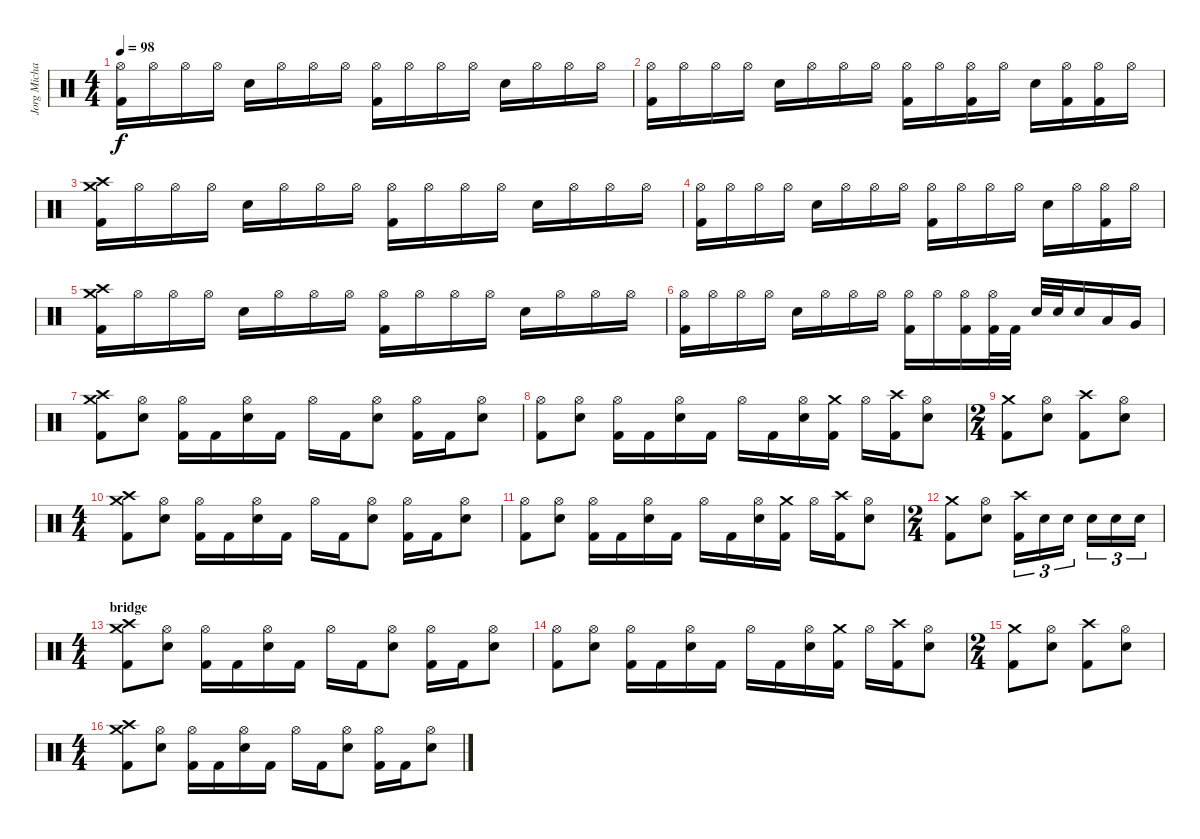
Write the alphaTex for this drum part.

\track ("Jorg Michael" "Jorg Micha") {instrument percussion}
\staff {score}
\articulation defaults
\ts (4 4)
\tempo 98
\clef neutral
\ks c
("Hi-Hat (open)" "Kick (hit) 2").16{dy f} "Hi-Hat (open)".16 "Hi-Hat (open)".16 "Hi-Hat (open)".16 "Electric Snare (hit)".16 "Hi-Hat (open)".16 "Hi-Hat (open)".16 "Hi-Hat (open)".16 ("Hi-Hat (open)" "Kick (hit) 2").16 "Hi-Hat (open)".16 "Hi-Hat (open)".16 "Hi-Hat (open)".16 "Electric Snare (hit)".16 "Hi-Hat (open)".16 "Hi-Hat (open)".16 "Hi-Hat (open)".16 |
("Hi-Hat (open)" "Kick (hit) 2").16 "Hi-Hat (open)".16 "Hi-Hat (open)".16 "Hi-Hat (open)".16 "Electric Snare (hit)".16 "Hi-Hat (open)".16 "Hi-Hat (open)".16 "Hi-Hat (open)".16 ("Hi-Hat (open)" "Kick (hit) 2").16 "Hi-Hat (open)".16 ("Hi-Hat (open)" "Kick (hit) 2").16 "Hi-Hat (open)".16 "Electric Snare (hit)".16 ("Hi-Hat (open)" "Kick (hit) 2").16 ("Hi-Hat (open)" "Kick (hit) 2").16 "Hi-Hat (open)".16 |
("Crash medium (hit)" "Crash high (hit)" "Kick (hit) 2").16 "Hi-Hat (open)".16 "Hi-Hat (open)".16 "Hi-Hat (open)".16 "Electric Snare (hit)".16 "Hi-Hat (open)".16 "Hi-Hat (open)".16 "Hi-Hat (open)".16 ("Hi-Hat (open)" "Kick (hit) 2").16 "Hi-Hat (open)".16 "Hi-Hat (open)".16 "Hi-Hat (open)".16 "Electric Snare (hit)".16 "Hi-Hat (open)".16 "Hi-Hat (open)".16 "Hi-Hat (open)".16 |
("Hi-Hat (open)" "Kick (hit) 2").16 "Hi-Hat (open)".16 "Hi-Hat (open)".16 "Hi-Hat (open)".16 "Electric Snare (hit)".16 "Hi-Hat (open)".16 "Hi-Hat (open)".16 "Hi-Hat (open)".16 ("Hi-Hat (open)" "Kick (hit) 2").16 "Hi-Hat (open)".16 "Hi-Hat (open)".16 "Hi-Hat (open)".16 "Electric Snare (hit)".16 "Hi-Hat (open)".16 ("Hi-Hat (open)" "Kick (hit) 2").16 "Hi-Hat (open)".16 |
("Crash medium (hit)" "Crash high (hit)" "Kick (hit) 2").16 "Hi-Hat (open)".16 "Hi-Hat (open)".16 "Hi-Hat (open)".16 "Electric Snare (hit)".16 "Hi-Hat (open)".16 "Hi-Hat (open)".16 "Hi-Hat (open)".16 ("Hi-Hat (open)" "Kick (hit) 2").16 "Hi-Hat (open)".16 "Hi-Hat (open)".16 "Hi-Hat (open)".16 "Electric Snare (hit)".16 "Hi-Hat (open)".16 "Hi-Hat (open)".16 "Hi-Hat (open)".16 |
("Hi-Hat (open)" "Kick (hit) 2").16 "Hi-Hat (open)".16 "Hi-Hat (open)".16 "Hi-Hat (open)".16 "Electric Snare (hit)".16 "Hi-Hat (open)".16 "Hi-Hat (open)".16 "Hi-Hat (open)".16 ("Hi-Hat (open)" "Kick (hit) 2").16 "Hi-Hat (open)".16 ("Hi-Hat (open)" "Kick (hit) 2").16 ("Hi-Hat (open)" "Kick (hit) 2").32 "Kick (hit) 2".32 "Electric Snare (hit)".32 "Electric Snare (hit)".32 "Electric Snare (hit)".16 "Low Tom (hit)".16 "Very Low Tom (hit)".16 |
("Crash medium (hit)" "Crash high (hit)" "Kick (hit) 2").8 ("Hi-Hat (open)" "Electric Snare (hit)").8 ("Hi-Hat (open)" "Kick (hit) 2").16 "Kick (hit) 2".16 ("Hi-Hat (open)" "Electric Snare (hit)").16 "Kick (hit) 2".16 "Hi-Hat (open)".16 "Kick (hit) 2".16 ("Hi-Hat (open)" "Electric Snare (hit)").8 ("Hi-Hat (open)" "Kick (hit) 2").16 "Kick (hit) 2".16 ("Hi-Hat (open)" "Electric Snare (hit)").8 |
("Hi-Hat (open)" "Kick (hit) 2").8 ("Hi-Hat (open)" "Electric Snare (hit)").8 ("Hi-Hat (open)" "Kick (hit) 2").16 "Kick (hit) 2".16 ("Hi-Hat (open)" "Electric Snare (hit)").16 "Kick (hit) 2".16 "Hi-Hat (open)".16 "Kick (hit) 2".16 ("Hi-Hat (open)" "Electric Snare (hit)").16 ("Crash medium (hit)" "Kick (hit) 2").16 "Hi-Hat (open)".16 ("Crash high (hit)" "Kick (hit) 2").16 ("Hi-Hat (open)" "Electric Snare (hit)").8 |
\ts (2 4)
("Crash medium (hit)" "Kick (hit) 2").8 ("Hi-Hat (open)" "Electric Snare (hit)").8 ("Crash high (hit)" "Kick (hit) 2").8 ("Hi-Hat (open)" "Electric Snare (hit)").8 |
\ts (4 4)
("Crash medium (hit)" "Crash high (hit)" "Kick (hit) 2").8 ("Hi-Hat (open)" "Electric Snare (hit)").8 ("Hi-Hat (open)" "Kick (hit) 2").16 "Kick (hit) 2".16 ("Hi-Hat (open)" "Electric Snare (hit)").16 "Kick (hit) 2".16 "Hi-Hat (open)".16 "Kick (hit) 2".16 ("Hi-Hat (open)" "Electric Snare (hit)").8 ("Hi-Hat (open)" "Kick (hit) 2").16 "Kick (hit) 2".16 ("Hi-Hat (open)" "Electric Snare (hit)").8 |
("Hi-Hat (open)" "Kick (hit) 2").8 ("Hi-Hat (open)" "Electric Snare (hit)").8 ("Hi-Hat (open)" "Kick (hit) 2").16 "Kick (hit) 2".16 ("Hi-Hat (open)" "Electric Snare (hit)").16 "Kick (hit) 2".16 "Hi-Hat (open)".16 "Kick (hit) 2".16 ("Hi-Hat (open)" "Electric Snare (hit)").16 ("Crash medium (hit)" "Kick (hit) 2").16 "Hi-Hat (open)".16 ("Crash high (hit)" "Kick (hit) 2").16 ("Hi-Hat (open)" "Electric Snare (hit)").8 |
\ts (2 4)
("Crash medium (hit)" "Kick (hit) 2").8 ("Hi-Hat (open)" "Electric Snare (hit)").8 ("Crash high (hit)" "Kick (hit) 2").16{tu (3 2)} "Electric Snare (hit)".16{tu (3 2)} "Electric Snare (hit)".16{tu (3 2)} "Electric Snare (hit)".16{tu (3 2)} "Electric Snare (hit)".16{tu (3 2)} "Electric Snare (hit)".16{tu (3 2)} |
\ts (4 4)
\section ("" "bridge")
("Crash medium (hit)" "Crash high (hit)" "Kick (hit) 2").8 ("Hi-Hat (open)" "Electric Snare (hit)").8 ("Hi-Hat (open)" "Kick (hit) 2").16 "Kick (hit) 2".16 ("Hi-Hat (open)" "Electric Snare (hit)").16 "Kick (hit) 2".16 "Hi-Hat (open)".16 "Kick (hit) 2".16 ("Hi-Hat (open)" "Electric Snare (hit)").8 ("Hi-Hat (open)" "Kick (hit) 2").16 "Kick (hit) 2".16 ("Hi-Hat (open)" "Electric Snare (hit)").8 |
("Hi-Hat (open)" "Kick (hit) 2").8 ("Hi-Hat (open)" "Electric Snare (hit)").8 ("Hi-Hat (open)" "Kick (hit) 2").16 "Kick (hit) 2".16 ("Hi-Hat (open)" "Electric Snare (hit)").16 "Kick (hit) 2".16 "Hi-Hat (open)".16 "Kick (hit) 2".16 ("Hi-Hat (open)" "Electric Snare (hit)").16 ("Crash medium (hit)" "Kick (hit) 2").16 "Hi-Hat (open)".16 ("Crash high (hit)" "Kick (hit) 2").16 ("Hi-Hat (open)" "Electric Snare (hit)").8 |
\ts (2 4)
("Crash medium (hit)" "Kick (hit) 2").8 ("Hi-Hat (open)" "Electric Snare (hit)").8 ("Crash high (hit)" "Kick (hit) 2").8 ("Hi-Hat (open)" "Electric Snare (hit)").8 |
\ts (4 4)
("Crash medium (hit)" "Crash high (hit)" "Kick (hit) 2").8 ("Hi-Hat (open)" "Electric Snare (hit)").8 ("Hi-Hat (open)" "Kick (hit) 2").16 "Kick (hit) 2".16 ("Hi-Hat (open)" "Electric Snare (hit)").16 "Kick (hit) 2".16 "Hi-Hat (open)".16 "Kick (hit) 2".16 ("Hi-Hat (open)" "Electric Snare (hit)").8 ("Hi-Hat (open)" "Kick (hit) 2").16 "Kick (hit) 2".16 ("Hi-Hat (open)" "Electric Snare (hit)").8
